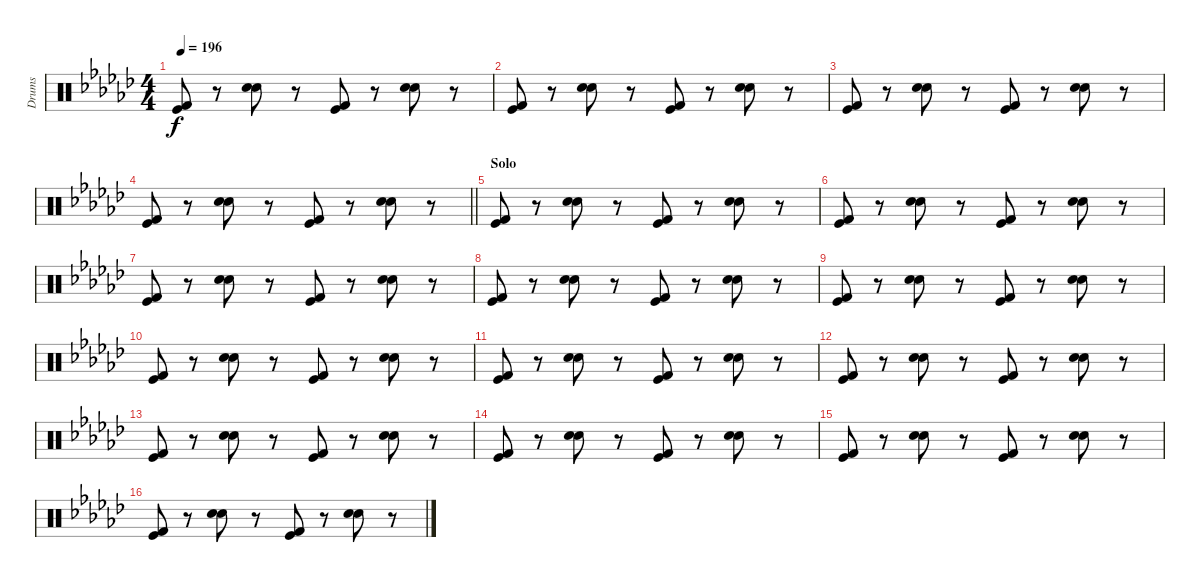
\track ("Drums" "Drums") {instrument percussion}
\staff {score}
\articulation defaults
\ts (4 4)
\tempo 196
\clef neutral
\ks gb
("Kick (hit) 2" "Kick (hit)").8{dy f} r.8 ("Snare (hit) 2" "Electric Snare (hit)").8 r.8 ("Kick (hit) 2" "Kick (hit)").8 r.8 ("Snare (hit) 2" "Electric Snare (hit)").8 r.8 |
("Kick (hit) 2" "Kick (hit)").8 r.8 ("Snare (hit) 2" "Electric Snare (hit)").8 r.8 ("Kick (hit) 2" "Kick (hit)").8 r.8 ("Snare (hit) 2" "Electric Snare (hit)").8 r.8 |
("Kick (hit) 2" "Kick (hit)").8 r.8 ("Snare (hit) 2" "Electric Snare (hit)").8 r.8 ("Kick (hit) 2" "Kick (hit)").8 r.8 ("Snare (hit) 2" "Electric Snare (hit)").8 r.8 |
\barLineRight lightlight
("Kick (hit) 2" "Kick (hit)").8 r.8 ("Snare (hit) 2" "Electric Snare (hit)").8 r.8 ("Kick (hit) 2" "Kick (hit)").8 r.8 ("Snare (hit) 2" "Electric Snare (hit)").8 r.8 |
\section ("" "Solo")
("Kick (hit) 2" "Kick (hit)").8 r.8 ("Snare (hit) 2" "Electric Snare (hit)").8 r.8 ("Kick (hit) 2" "Kick (hit)").8 r.8 ("Snare (hit) 2" "Electric Snare (hit)").8 r.8 |
("Kick (hit) 2" "Kick (hit)").8 r.8 ("Snare (hit) 2" "Electric Snare (hit)").8 r.8 ("Kick (hit) 2" "Kick (hit)").8 r.8 ("Snare (hit) 2" "Electric Snare (hit)").8 r.8 |
("Kick (hit) 2" "Kick (hit)").8 r.8 ("Snare (hit) 2" "Electric Snare (hit)").8 r.8 ("Kick (hit) 2" "Kick (hit)").8 r.8 ("Snare (hit) 2" "Electric Snare (hit)").8 r.8 |
("Kick (hit) 2" "Kick (hit)").8 r.8 ("Snare (hit) 2" "Electric Snare (hit)").8 r.8 ("Kick (hit) 2" "Kick (hit)").8 r.8 ("Snare (hit) 2" "Electric Snare (hit)").8 r.8 |
("Kick (hit) 2" "Kick (hit)").8 r.8 ("Snare (hit) 2" "Electric Snare (hit)").8 r.8 ("Kick (hit) 2" "Kick (hit)").8 r.8 ("Snare (hit) 2" "Electric Snare (hit)").8 r.8 |
("Kick (hit) 2" "Kick (hit)").8 r.8 ("Snare (hit) 2" "Electric Snare (hit)").8 r.8 ("Kick (hit) 2" "Kick (hit)").8 r.8 ("Snare (hit) 2" "Electric Snare (hit)").8 r.8 |
("Kick (hit) 2" "Kick (hit)").8 r.8 ("Snare (hit) 2" "Electric Snare (hit)").8 r.8 ("Kick (hit) 2" "Kick (hit)").8 r.8 ("Snare (hit) 2" "Electric Snare (hit)").8 r.8 |
("Kick (hit) 2" "Kick (hit)").8 r.8 ("Snare (hit) 2" "Electric Snare (hit)").8 r.8 ("Kick (hit) 2" "Kick (hit)").8 r.8 ("Snare (hit) 2" "Electric Snare (hit)").8 r.8 |
("Kick (hit) 2" "Kick (hit)").8 r.8 ("Snare (hit) 2" "Electric Snare (hit)").8 r.8 ("Kick (hit) 2" "Kick (hit)").8 r.8 ("Snare (hit) 2" "Electric Snare (hit)").8 r.8 |
("Kick (hit) 2" "Kick (hit)").8 r.8 ("Snare (hit) 2" "Electric Snare (hit)").8 r.8 ("Kick (hit) 2" "Kick (hit)").8 r.8 ("Snare (hit) 2" "Electric Snare (hit)").8 r.8 |
("Kick (hit) 2" "Kick (hit)").8 r.8 ("Snare (hit) 2" "Electric Snare (hit)").8 r.8 ("Kick (hit) 2" "Kick (hit)").8 r.8 ("Snare (hit) 2" "Electric Snare (hit)").8 r.8 |
("Kick (hit) 2" "Kick (hit)").8 r.8 ("Snare (hit) 2" "Electric Snare (hit)").8 r.8 ("Kick (hit) 2" "Kick (hit)").8 r.8 ("Snare (hit) 2" "Electric Snare (hit)").8 r.8
